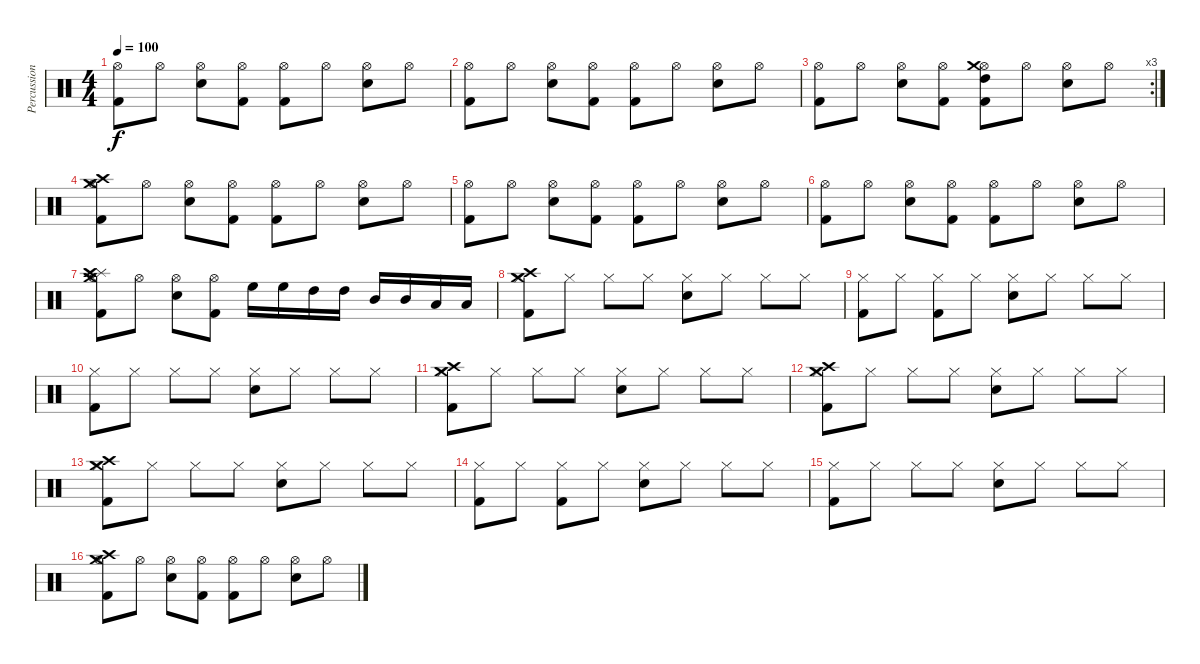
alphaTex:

\track ("Percussion" "Percussion") {instrument percussion}
\staff {score}
\articulation defaults
\ts (4 4)
\tempo 100
\clef neutral
\ks c
("Kick (hit) 2" "Hi-Hat (open)").8{dy f} "Hi-Hat (open)".8 ("Hi-Hat (open)" "Electric Snare (hit)").8 ("Hi-Hat (open)" "Kick (hit) 2").8 ("Hi-Hat (open)" "Kick (hit) 2").8 "Hi-Hat (open)".8 ("Hi-Hat (open)" "Electric Snare (hit)").8 "Hi-Hat (open)".8 |
("Kick (hit) 2" "Hi-Hat (open)").8 "Hi-Hat (open)".8 ("Hi-Hat (open)" "Electric Snare (hit)").8 ("Hi-Hat (open)" "Kick (hit) 2").8 ("Hi-Hat (open)" "Kick (hit) 2").8 "Hi-Hat (open)".8 ("Hi-Hat (open)" "Electric Snare (hit)").8 "Hi-Hat (open)".8 |
\rc 3
("Kick (hit) 2" "Hi-Hat (open)").8 "Hi-Hat (open)".8 ("Hi-Hat (open)" "Electric Snare (hit)").8 ("Hi-Hat (open)" "Kick (hit) 2").8 ("Hi-Hat (open)" "Kick (hit) 2" "Crash medium (hit)" "High Tom (hit)").8 "Hi-Hat (open)".8 ("Hi-Hat (open)" "Electric Snare (hit)").8 "Hi-Hat (open)".8 |
("Crash high (hit)" "Crash medium (hit)" "Kick (hit) 2" "Hi-Hat (open)").8 "Hi-Hat (open)".8 ("Hi-Hat (open)" "Electric Snare (hit)").8 ("Hi-Hat (open)" "Kick (hit) 2").8 ("Hi-Hat (open)" "Kick (hit) 2").8 "Hi-Hat (open)".8 ("Hi-Hat (open)" "Electric Snare (hit)").8 "Hi-Hat (open)".8 |
("Kick (hit) 2" "Hi-Hat (open)").8 "Hi-Hat (open)".8 ("Hi-Hat (open)" "Electric Snare (hit)").8 ("Hi-Hat (open)" "Kick (hit) 2").8 ("Hi-Hat (open)" "Kick (hit) 2").8 "Hi-Hat (open)".8 ("Hi-Hat (open)" "Electric Snare (hit)").8 "Hi-Hat (open)".8 |
("Kick (hit) 2" "Hi-Hat (open)").8 "Hi-Hat (open)".8 ("Hi-Hat (open)" "Electric Snare (hit)").8 ("Hi-Hat (open)" "Kick (hit) 2").8 ("Hi-Hat (open)" "Kick (hit) 2").8 "Hi-Hat (open)".8 ("Hi-Hat (open)" "Electric Snare (hit)").8 "Hi-Hat (open)".8 |
("Splash (hit)" "Crash high (hit)" "Crash medium (hit)" "Hi-Hat (open)" "Kick (hit) 2").8 "Hi-Hat (open)".8 ("Hi-Hat (open)" "Electric Snare (hit)").8 ("Hi-Hat (open)" "Kick (hit) 2").8 "High Floor Tom (hit)".16 "High Floor Tom (hit)".16 "High Tom (hit)".16 "High Tom (hit)".16 "Mid Tom (hit)".16 "Mid Tom (hit)".16 "Low Tom (hit)".16 "Low Tom (hit)".16 |
("Hi-Hat (closed)" "Crash medium (hit)" "Crash high (hit)" "Kick (hit) 2").8 "Hi-Hat (closed)".8 "Hi-Hat (closed)".8 "Hi-Hat (closed)".8 ("Hi-Hat (closed)" "Electric Snare (hit)").8 "Hi-Hat (closed)".8 "Hi-Hat (closed)".8 "Hi-Hat (closed)".8 |
("Hi-Hat (closed)" "Kick (hit) 2").8 "Hi-Hat (closed)".8 ("Hi-Hat (closed)" "Kick (hit) 2").8 "Hi-Hat (closed)".8 ("Hi-Hat (closed)" "Electric Snare (hit)").8 "Hi-Hat (closed)".8 "Hi-Hat (closed)".8 "Hi-Hat (closed)".8 |
("Hi-Hat (closed)" "Kick (hit) 2").8 "Hi-Hat (closed)".8 "Hi-Hat (closed)".8 "Hi-Hat (closed)".8 ("Hi-Hat (closed)" "Electric Snare (hit)").8 "Hi-Hat (closed)".8 "Hi-Hat (closed)".8 "Hi-Hat (closed)".8 |
("Hi-Hat (closed)" "Crash medium (hit)" "Crash high (hit)" "Kick (hit) 2").8 "Hi-Hat (closed)".8 "Hi-Hat (closed)".8 "Hi-Hat (closed)".8 ("Hi-Hat (closed)" "Electric Snare (hit)").8 "Hi-Hat (closed)".8 "Hi-Hat (closed)".8 "Hi-Hat (closed)".8 |
("Hi-Hat (closed)" "Crash medium (hit)" "Crash high (hit)" "Kick (hit) 2").8 "Hi-Hat (closed)".8 "Hi-Hat (closed)".8 "Hi-Hat (closed)".8 ("Hi-Hat (closed)" "Electric Snare (hit)").8 "Hi-Hat (closed)".8 "Hi-Hat (closed)".8 "Hi-Hat (closed)".8 |
("Hi-Hat (closed)" "Crash medium (hit)" "Crash high (hit)" "Kick (hit) 2").8 "Hi-Hat (closed)".8 "Hi-Hat (closed)".8 "Hi-Hat (closed)".8 ("Hi-Hat (closed)" "Electric Snare (hit)").8 "Hi-Hat (closed)".8 "Hi-Hat (closed)".8 "Hi-Hat (closed)".8 |
("Hi-Hat (closed)" "Kick (hit) 2").8 "Hi-Hat (closed)".8 ("Hi-Hat (closed)" "Kick (hit) 2").8 "Hi-Hat (closed)".8 ("Hi-Hat (closed)" "Electric Snare (hit)").8 "Hi-Hat (closed)".8 "Hi-Hat (closed)".8 "Hi-Hat (closed)".8 |
("Hi-Hat (closed)" "Kick (hit) 2").8 "Hi-Hat (closed)".8 "Hi-Hat (closed)".8 "Hi-Hat (closed)".8 ("Hi-Hat (closed)" "Electric Snare (hit)").8 "Hi-Hat (closed)".8 "Hi-Hat (closed)".8 "Hi-Hat (closed)".8 |
("Crash high (hit)" "Crash medium (hit)" "Kick (hit) 2" "Hi-Hat (open)").8 "Hi-Hat (open)".8 ("Hi-Hat (open)" "Electric Snare (hit)").8 ("Hi-Hat (open)" "Kick (hit) 2").8 ("Hi-Hat (open)" "Kick (hit) 2").8 "Hi-Hat (open)".8 ("Hi-Hat (open)" "Electric Snare (hit)").8 "Hi-Hat (open)".8
